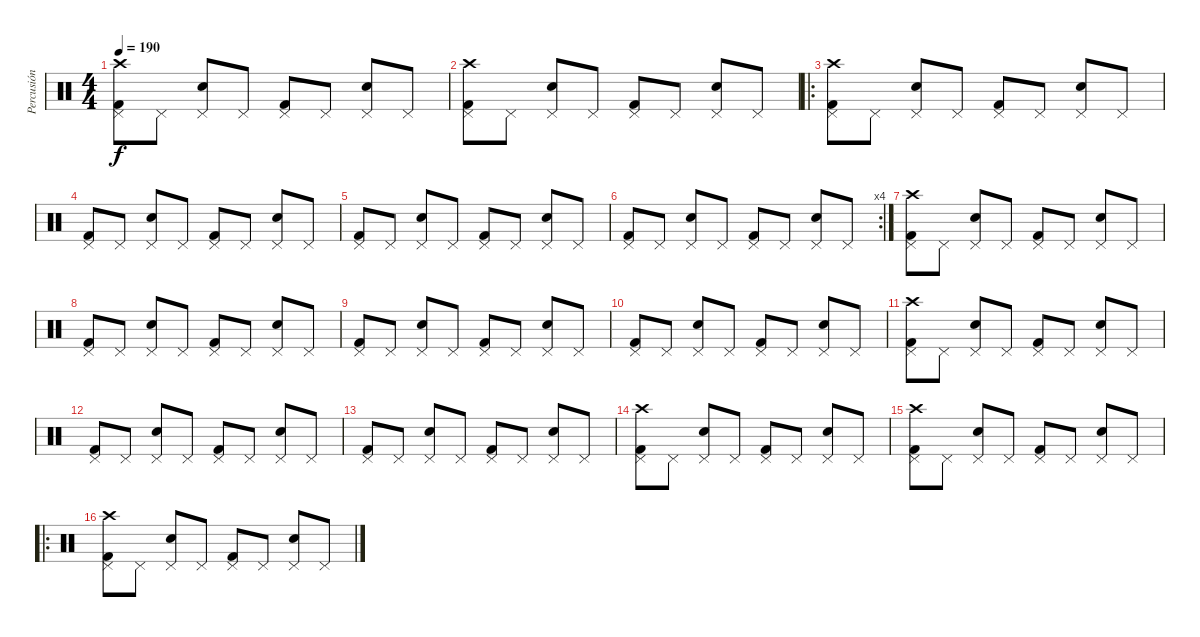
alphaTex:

\track ("Percusión" "Percusión") {instrument percussion}
\staff {score}
\articulation defaults
\ts (4 4)
\tempo 190
\clef neutral
\ks c
("Pedal Hi-Hat (hit)" "Kick (hit) 2" "Crash high (hit)").8{dy f} "Pedal Hi-Hat (hit)".8 ("Pedal Hi-Hat (hit)" "Electric Snare (hit)").8 "Pedal Hi-Hat (hit)".8 ("Pedal Hi-Hat (hit)" "Kick (hit) 2").8 "Pedal Hi-Hat (hit)".8 ("Pedal Hi-Hat (hit)" "Electric Snare (hit)").8 "Pedal Hi-Hat (hit)".8 |
("Pedal Hi-Hat (hit)" "Kick (hit) 2" "Crash high (hit)").8 "Pedal Hi-Hat (hit)".8 ("Pedal Hi-Hat (hit)" "Electric Snare (hit)").8 "Pedal Hi-Hat (hit)".8 ("Pedal Hi-Hat (hit)" "Kick (hit) 2").8 "Pedal Hi-Hat (hit)".8 ("Pedal Hi-Hat (hit)" "Electric Snare (hit)").8 "Pedal Hi-Hat (hit)".8 |
\ro
("Pedal Hi-Hat (hit)" "Kick (hit) 2" "Crash high (hit)").8 "Pedal Hi-Hat (hit)".8 ("Pedal Hi-Hat (hit)" "Electric Snare (hit)").8 "Pedal Hi-Hat (hit)".8 ("Pedal Hi-Hat (hit)" "Kick (hit) 2").8 "Pedal Hi-Hat (hit)".8 ("Pedal Hi-Hat (hit)" "Electric Snare (hit)").8 "Pedal Hi-Hat (hit)".8 |
("Pedal Hi-Hat (hit)" "Kick (hit) 2").8 "Pedal Hi-Hat (hit)".8 ("Pedal Hi-Hat (hit)" "Electric Snare (hit)").8 "Pedal Hi-Hat (hit)".8 ("Pedal Hi-Hat (hit)" "Kick (hit) 2").8 "Pedal Hi-Hat (hit)".8 ("Pedal Hi-Hat (hit)" "Electric Snare (hit)").8 "Pedal Hi-Hat (hit)".8 |
("Pedal Hi-Hat (hit)" "Kick (hit) 2").8 "Pedal Hi-Hat (hit)".8 ("Pedal Hi-Hat (hit)" "Electric Snare (hit)").8 "Pedal Hi-Hat (hit)".8 ("Pedal Hi-Hat (hit)" "Kick (hit) 2").8 "Pedal Hi-Hat (hit)".8 ("Pedal Hi-Hat (hit)" "Electric Snare (hit)").8 "Pedal Hi-Hat (hit)".8 |
\rc 4
("Pedal Hi-Hat (hit)" "Kick (hit) 2").8 "Pedal Hi-Hat (hit)".8 ("Pedal Hi-Hat (hit)" "Electric Snare (hit)").8 "Pedal Hi-Hat (hit)".8 ("Pedal Hi-Hat (hit)" "Kick (hit) 2").8 "Pedal Hi-Hat (hit)".8 ("Pedal Hi-Hat (hit)" "Electric Snare (hit)").8 "Pedal Hi-Hat (hit)".8 |
("Pedal Hi-Hat (hit)" "Kick (hit) 2" "Crash high (hit)").8 "Pedal Hi-Hat (hit)".8 ("Pedal Hi-Hat (hit)" "Electric Snare (hit)").8 "Pedal Hi-Hat (hit)".8 ("Pedal Hi-Hat (hit)" "Kick (hit) 2").8 "Pedal Hi-Hat (hit)".8 ("Pedal Hi-Hat (hit)" "Electric Snare (hit)").8 "Pedal Hi-Hat (hit)".8 |
("Pedal Hi-Hat (hit)" "Kick (hit) 2").8 "Pedal Hi-Hat (hit)".8 ("Pedal Hi-Hat (hit)" "Electric Snare (hit)").8 "Pedal Hi-Hat (hit)".8 ("Pedal Hi-Hat (hit)" "Kick (hit) 2").8 "Pedal Hi-Hat (hit)".8 ("Pedal Hi-Hat (hit)" "Electric Snare (hit)").8 "Pedal Hi-Hat (hit)".8 |
("Pedal Hi-Hat (hit)" "Kick (hit) 2").8 "Pedal Hi-Hat (hit)".8 ("Pedal Hi-Hat (hit)" "Electric Snare (hit)").8 "Pedal Hi-Hat (hit)".8 ("Pedal Hi-Hat (hit)" "Kick (hit) 2").8 "Pedal Hi-Hat (hit)".8 ("Pedal Hi-Hat (hit)" "Electric Snare (hit)").8 "Pedal Hi-Hat (hit)".8 |
("Pedal Hi-Hat (hit)" "Kick (hit) 2").8 "Pedal Hi-Hat (hit)".8 ("Pedal Hi-Hat (hit)" "Electric Snare (hit)").8 "Pedal Hi-Hat (hit)".8 ("Pedal Hi-Hat (hit)" "Kick (hit) 2").8 "Pedal Hi-Hat (hit)".8 ("Pedal Hi-Hat (hit)" "Electric Snare (hit)").8 "Pedal Hi-Hat (hit)".8 |
("Pedal Hi-Hat (hit)" "Kick (hit) 2" "Crash high (hit)").8 "Pedal Hi-Hat (hit)".8 ("Pedal Hi-Hat (hit)" "Electric Snare (hit)").8 "Pedal Hi-Hat (hit)".8 ("Pedal Hi-Hat (hit)" "Kick (hit) 2").8 "Pedal Hi-Hat (hit)".8 ("Pedal Hi-Hat (hit)" "Electric Snare (hit)").8 "Pedal Hi-Hat (hit)".8 |
("Pedal Hi-Hat (hit)" "Kick (hit) 2").8 "Pedal Hi-Hat (hit)".8 ("Pedal Hi-Hat (hit)" "Electric Snare (hit)").8 "Pedal Hi-Hat (hit)".8 ("Pedal Hi-Hat (hit)" "Kick (hit) 2").8 "Pedal Hi-Hat (hit)".8 ("Pedal Hi-Hat (hit)" "Electric Snare (hit)").8 "Pedal Hi-Hat (hit)".8 |
("Pedal Hi-Hat (hit)" "Kick (hit) 2").8 "Pedal Hi-Hat (hit)".8 ("Pedal Hi-Hat (hit)" "Electric Snare (hit)").8 "Pedal Hi-Hat (hit)".8 ("Pedal Hi-Hat (hit)" "Kick (hit) 2").8 "Pedal Hi-Hat (hit)".8 ("Pedal Hi-Hat (hit)" "Electric Snare (hit)").8 "Pedal Hi-Hat (hit)".8 |
("Pedal Hi-Hat (hit)" "Kick (hit) 2" "Crash high (hit)").8 "Pedal Hi-Hat (hit)".8 ("Pedal Hi-Hat (hit)" "Electric Snare (hit)").8 "Pedal Hi-Hat (hit)".8 ("Pedal Hi-Hat (hit)" "Kick (hit) 2").8 "Pedal Hi-Hat (hit)".8 ("Pedal Hi-Hat (hit)" "Electric Snare (hit)").8 "Pedal Hi-Hat (hit)".8 |
("Pedal Hi-Hat (hit)" "Kick (hit) 2" "Crash high (hit)").8 "Pedal Hi-Hat (hit)".8 ("Pedal Hi-Hat (hit)" "Electric Snare (hit)").8 "Pedal Hi-Hat (hit)".8 ("Pedal Hi-Hat (hit)" "Kick (hit) 2").8 "Pedal Hi-Hat (hit)".8 ("Pedal Hi-Hat (hit)" "Electric Snare (hit)").8 "Pedal Hi-Hat (hit)".8 |
\ro
("Pedal Hi-Hat (hit)" "Kick (hit) 2" "Crash high (hit)").8 "Pedal Hi-Hat (hit)".8 ("Pedal Hi-Hat (hit)" "Electric Snare (hit)").8 "Pedal Hi-Hat (hit)".8 ("Pedal Hi-Hat (hit)" "Kick (hit) 2").8 "Pedal Hi-Hat (hit)".8 ("Pedal Hi-Hat (hit)" "Electric Snare (hit)").8 "Pedal Hi-Hat (hit)".8
